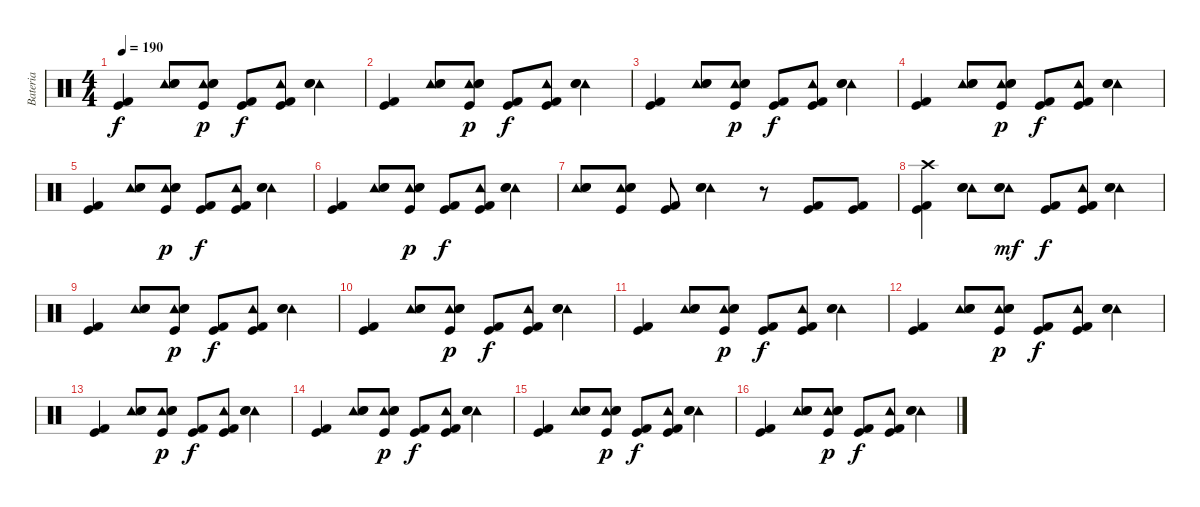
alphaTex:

\track ("Bateria" "Bateria") {instrument percussion}
\staff {score}
\articulation defaults
\ts (4 4)
\tempo 190
\clef neutral
\ks c
("Kick (hit) 2" "Kick (hit)").4{dy f} ("Tambourine (hit)" "Snare (hit) 2" "Electric Snare (hit)").8 ("Tambourine (hit)" "Snare (hit) 2" "Electric Snare (hit)" "Kick (hit)").8{dy p} ("Kick (hit) 2" "Kick (hit)").8{dy f} ("Tambourine (hit)" "Kick (hit) 2" "Kick (hit)").8 ("Tambourine (hit)" "Snare (hit) 2" "Electric Snare (hit)").4 |
("Kick (hit) 2" "Kick (hit)").4 ("Tambourine (hit)" "Snare (hit) 2" "Electric Snare (hit)").8 ("Tambourine (hit)" "Snare (hit) 2" "Electric Snare (hit)" "Kick (hit)").8{dy p} ("Kick (hit) 2" "Kick (hit)").8{dy f} ("Tambourine (hit)" "Kick (hit) 2" "Kick (hit)").8 ("Tambourine (hit)" "Snare (hit) 2" "Electric Snare (hit)").4 |
("Kick (hit) 2" "Kick (hit)").4 ("Tambourine (hit)" "Snare (hit) 2" "Electric Snare (hit)").8 ("Tambourine (hit)" "Snare (hit) 2" "Electric Snare (hit)" "Kick (hit)").8{dy p} ("Kick (hit) 2" "Kick (hit)").8{dy f} ("Tambourine (hit)" "Kick (hit) 2" "Kick (hit)").8 ("Tambourine (hit)" "Snare (hit) 2" "Electric Snare (hit)").4 |
("Kick (hit) 2" "Kick (hit)").4 ("Tambourine (hit)" "Snare (hit) 2" "Electric Snare (hit)").8 ("Tambourine (hit)" "Snare (hit) 2" "Electric Snare (hit)" "Kick (hit)").8{dy p} ("Kick (hit) 2" "Kick (hit)").8{dy f} ("Tambourine (hit)" "Kick (hit) 2" "Kick (hit)").8 ("Tambourine (hit)" "Snare (hit) 2" "Electric Snare (hit)").4 |
("Kick (hit) 2" "Kick (hit)").4 ("Tambourine (hit)" "Snare (hit) 2" "Electric Snare (hit)").8 ("Tambourine (hit)" "Snare (hit) 2" "Electric Snare (hit)" "Kick (hit)").8{dy p} ("Kick (hit) 2" "Kick (hit)").8{dy f} ("Tambourine (hit)" "Kick (hit) 2" "Kick (hit)").8 ("Tambourine (hit)" "Snare (hit) 2" "Electric Snare (hit)").4 |
("Kick (hit) 2" "Kick (hit)").4 ("Tambourine (hit)" "Snare (hit) 2" "Electric Snare (hit)").8 ("Tambourine (hit)" "Snare (hit) 2" "Electric Snare (hit)" "Kick (hit)").8{dy p} ("Kick (hit) 2" "Kick (hit)").8{dy f} ("Tambourine (hit)" "Kick (hit) 2" "Kick (hit)").8 ("Tambourine (hit)" "Snare (hit) 2" "Electric Snare (hit)").4 |
("Tambourine (hit)" "Snare (hit) 2" "Electric Snare (hit)").8 ("Tambourine (hit)" "Snare (hit) 2" "Electric Snare (hit)" "Kick (hit)").8 ("Kick (hit) 2" "Kick (hit)").8 ("Tambourine (hit)" "Snare (hit) 2" "Electric Snare (hit)").4 r.8 ("Kick (hit) 2" "Kick (hit)").8 ("Kick (hit) 2" "Kick (hit)").8 |
("Crash high (hit)" "Kick (hit) 2" "Kick (hit)").4 ("Tambourine (hit)" "Snare (hit) 2" "Electric Snare (hit)").8 ("Tambourine (hit)" "Snare (hit) 2" "Electric Snare (hit)").8{dy mf} ("Kick (hit) 2" "Kick (hit)").8{dy f} ("Tambourine (hit)" "Kick (hit) 2" "Kick (hit)").8 ("Tambourine (hit)" "Snare (hit) 2" "Electric Snare (hit)").4 |
("Kick (hit) 2" "Kick (hit)").4 ("Tambourine (hit)" "Snare (hit) 2" "Electric Snare (hit)").8 ("Tambourine (hit)" "Snare (hit) 2" "Electric Snare (hit)" "Kick (hit)").8{dy p} ("Kick (hit) 2" "Kick (hit)").8{dy f} ("Tambourine (hit)" "Kick (hit) 2" "Kick (hit)").8 ("Tambourine (hit)" "Snare (hit) 2" "Electric Snare (hit)").4 |
("Kick (hit) 2" "Kick (hit)").4 ("Tambourine (hit)" "Snare (hit) 2" "Electric Snare (hit)").8 ("Tambourine (hit)" "Snare (hit) 2" "Electric Snare (hit)" "Kick (hit)").8{dy p} ("Kick (hit) 2" "Kick (hit)").8{dy f} ("Tambourine (hit)" "Kick (hit) 2" "Kick (hit)").8 ("Tambourine (hit)" "Snare (hit) 2" "Electric Snare (hit)").4 |
("Kick (hit) 2" "Kick (hit)").4 ("Tambourine (hit)" "Snare (hit) 2" "Electric Snare (hit)").8 ("Tambourine (hit)" "Snare (hit) 2" "Electric Snare (hit)" "Kick (hit)").8{dy p} ("Kick (hit) 2" "Kick (hit)").8{dy f} ("Tambourine (hit)" "Kick (hit) 2" "Kick (hit)").8 ("Tambourine (hit)" "Snare (hit) 2" "Electric Snare (hit)").4 |
("Kick (hit) 2" "Kick (hit)").4 ("Tambourine (hit)" "Snare (hit) 2" "Electric Snare (hit)").8 ("Tambourine (hit)" "Snare (hit) 2" "Electric Snare (hit)" "Kick (hit)").8{dy p} ("Kick (hit) 2" "Kick (hit)").8{dy f} ("Tambourine (hit)" "Kick (hit) 2" "Kick (hit)").8 ("Tambourine (hit)" "Snare (hit) 2" "Electric Snare (hit)").4 |
("Kick (hit) 2" "Kick (hit)").4 ("Tambourine (hit)" "Snare (hit) 2" "Electric Snare (hit)").8 ("Tambourine (hit)" "Snare (hit) 2" "Electric Snare (hit)" "Kick (hit)").8{dy p} ("Kick (hit) 2" "Kick (hit)").8{dy f} ("Tambourine (hit)" "Kick (hit) 2" "Kick (hit)").8 ("Tambourine (hit)" "Snare (hit) 2" "Electric Snare (hit)").4 |
("Kick (hit) 2" "Kick (hit)").4 ("Tambourine (hit)" "Snare (hit) 2" "Electric Snare (hit)").8 ("Tambourine (hit)" "Snare (hit) 2" "Electric Snare (hit)" "Kick (hit)").8{dy p} ("Kick (hit) 2" "Kick (hit)").8{dy f} ("Tambourine (hit)" "Kick (hit) 2" "Kick (hit)").8 ("Tambourine (hit)" "Snare (hit) 2" "Electric Snare (hit)").4 |
("Kick (hit) 2" "Kick (hit)").4 ("Tambourine (hit)" "Snare (hit) 2" "Electric Snare (hit)").8 ("Tambourine (hit)" "Snare (hit) 2" "Electric Snare (hit)" "Kick (hit)").8{dy p} ("Kick (hit) 2" "Kick (hit)").8{dy f} ("Tambourine (hit)" "Kick (hit) 2" "Kick (hit)").8 ("Tambourine (hit)" "Snare (hit) 2" "Electric Snare (hit)").4 |
("Kick (hit) 2" "Kick (hit)").4 ("Tambourine (hit)" "Snare (hit) 2" "Electric Snare (hit)").8 ("Tambourine (hit)" "Snare (hit) 2" "Electric Snare (hit)" "Kick (hit)").8{dy p} ("Kick (hit) 2" "Kick (hit)").8{dy f} ("Tambourine (hit)" "Kick (hit) 2" "Kick (hit)").8 ("Tambourine (hit)" "Snare (hit) 2" "Electric Snare (hit)").4
